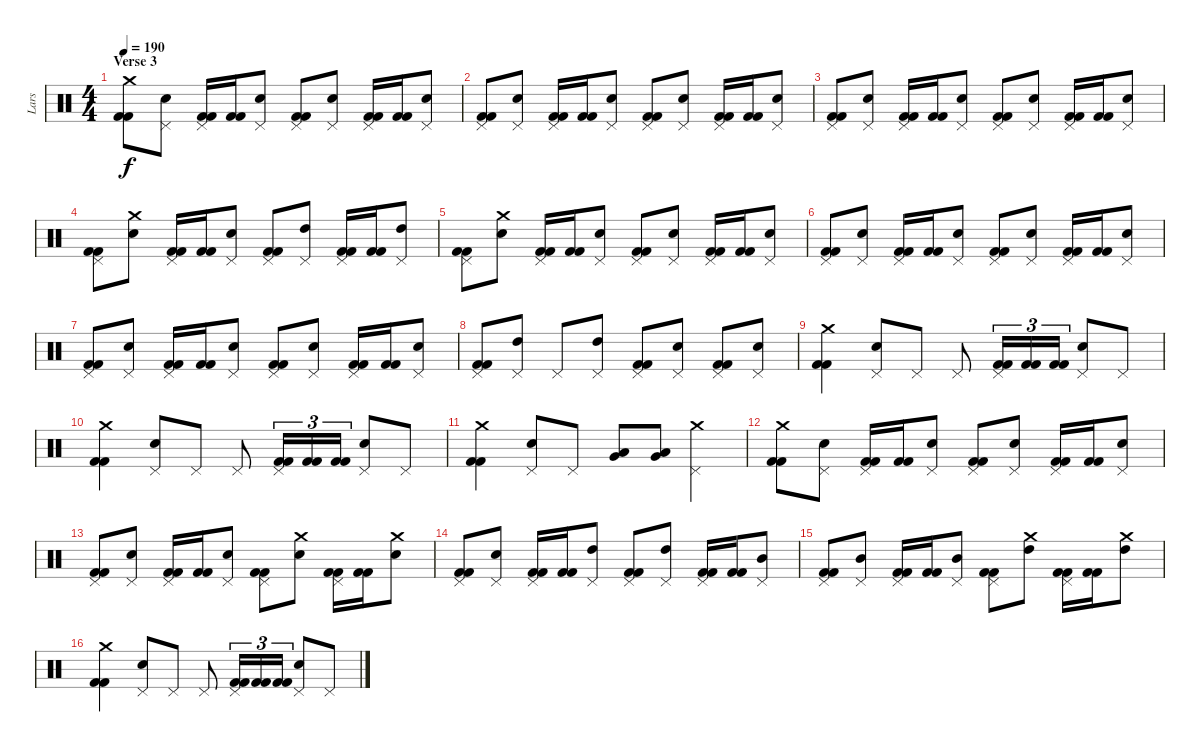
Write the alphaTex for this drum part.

\track ("Lars" "Lars") {instrument percussion}
\staff {score}
\articulation defaults
\ts (4 4)
\section ("" "Verse 3")
\tempo 190
\clef neutral
\ks c
("Crash medium (hit)" "Kick (hit) 2" "Kick (hit) 2").8{dy f} ("Pedal Hi-Hat (hit)" "Electric Snare (hit)").8 ("Pedal Hi-Hat (hit)" "Kick (hit) 2" "Kick (hit) 2").16 ("Kick (hit) 2" "Kick (hit) 2").16 ("Pedal Hi-Hat (hit)" "Electric Snare (hit)").8 ("Pedal Hi-Hat (hit)" "Kick (hit) 2" "Kick (hit) 2").8 ("Pedal Hi-Hat (hit)" "Electric Snare (hit)").8 ("Pedal Hi-Hat (hit)" "Kick (hit) 2" "Kick (hit) 2").16 ("Kick (hit) 2" "Kick (hit) 2").16 ("Pedal Hi-Hat (hit)" "Electric Snare (hit)").8 |
("Pedal Hi-Hat (hit)" "Kick (hit) 2" "Kick (hit) 2").8 ("Pedal Hi-Hat (hit)" "Electric Snare (hit)").8 ("Pedal Hi-Hat (hit)" "Kick (hit) 2" "Kick (hit) 2").16 ("Kick (hit) 2" "Kick (hit) 2").16 ("Pedal Hi-Hat (hit)" "Electric Snare (hit)").8 ("Pedal Hi-Hat (hit)" "Kick (hit) 2" "Kick (hit) 2").8 ("Pedal Hi-Hat (hit)" "Electric Snare (hit)").8 ("Pedal Hi-Hat (hit)" "Kick (hit) 2" "Kick (hit) 2").16 ("Kick (hit) 2" "Kick (hit) 2").16 ("Pedal Hi-Hat (hit)" "Electric Snare (hit)").8 |
("Pedal Hi-Hat (hit)" "Kick (hit) 2" "Kick (hit) 2").8 ("Pedal Hi-Hat (hit)" "Electric Snare (hit)").8 ("Pedal Hi-Hat (hit)" "Kick (hit) 2" "Kick (hit) 2").16 ("Kick (hit) 2" "Kick (hit) 2").16 ("Pedal Hi-Hat (hit)" "Electric Snare (hit)").8 ("Pedal Hi-Hat (hit)" "Kick (hit) 2" "Kick (hit) 2").8 ("Pedal Hi-Hat (hit)" "Electric Snare (hit)").8 ("Pedal Hi-Hat (hit)" "Kick (hit) 2" "Kick (hit) 2").16 ("Kick (hit) 2" "Kick (hit) 2").16 ("Pedal Hi-Hat (hit)" "Electric Snare (hit)").8 |
("Pedal Hi-Hat (hit)" "Kick (hit) 2" "Kick (hit) 2").8 ("Crash medium (hit)" "Electric Snare (hit)").8 ("Pedal Hi-Hat (hit)" "Kick (hit) 2" "Kick (hit) 2").16 ("Kick (hit) 2" "Kick (hit) 2").16 ("Pedal Hi-Hat (hit)" "Electric Snare (hit)").8 ("Pedal Hi-Hat (hit)" "Kick (hit) 2" "Kick (hit) 2").8 ("Pedal Hi-Hat (hit)" "High Tom (hit)").8 ("Pedal Hi-Hat (hit)" "Kick (hit) 2" "Kick (hit) 2").16 ("Kick (hit) 2" "Kick (hit) 2").16 ("Pedal Hi-Hat (hit)" "High Tom (hit)").8 |
("Pedal Hi-Hat (hit)" "Kick (hit) 2" "Kick (hit) 2").8 ("Crash medium (hit)" "Electric Snare (hit)").8 ("Pedal Hi-Hat (hit)" "Kick (hit) 2" "Kick (hit) 2").16 ("Kick (hit) 2" "Kick (hit) 2").16 ("Pedal Hi-Hat (hit)" "Electric Snare (hit)").8 ("Pedal Hi-Hat (hit)" "Kick (hit) 2" "Kick (hit) 2").8 ("Pedal Hi-Hat (hit)" "Electric Snare (hit)").8 ("Pedal Hi-Hat (hit)" "Kick (hit) 2" "Kick (hit) 2").16 ("Kick (hit) 2" "Kick (hit) 2").16 ("Pedal Hi-Hat (hit)" "Electric Snare (hit)").8 |
("Pedal Hi-Hat (hit)" "Kick (hit) 2" "Kick (hit) 2").8 ("Pedal Hi-Hat (hit)" "Electric Snare (hit)").8 ("Pedal Hi-Hat (hit)" "Kick (hit) 2" "Kick (hit) 2").16 ("Kick (hit) 2" "Kick (hit) 2").16 ("Pedal Hi-Hat (hit)" "Electric Snare (hit)").8 ("Pedal Hi-Hat (hit)" "Kick (hit) 2" "Kick (hit) 2").8 ("Pedal Hi-Hat (hit)" "Electric Snare (hit)").8 ("Pedal Hi-Hat (hit)" "Kick (hit) 2" "Kick (hit) 2").16 ("Kick (hit) 2" "Kick (hit) 2").16 ("Pedal Hi-Hat (hit)" "Electric Snare (hit)").8 |
("Pedal Hi-Hat (hit)" "Kick (hit) 2" "Kick (hit) 2").8 ("Pedal Hi-Hat (hit)" "Electric Snare (hit)").8 ("Pedal Hi-Hat (hit)" "Kick (hit) 2" "Kick (hit) 2").16 ("Kick (hit) 2" "Kick (hit) 2").16 ("Pedal Hi-Hat (hit)" "Electric Snare (hit)").8 ("Pedal Hi-Hat (hit)" "Kick (hit) 2" "Kick (hit) 2").8 ("Pedal Hi-Hat (hit)" "Electric Snare (hit)").8 ("Pedal Hi-Hat (hit)" "Kick (hit) 2" "Kick (hit) 2").16 ("Kick (hit) 2" "Kick (hit) 2").16 ("Pedal Hi-Hat (hit)" "Electric Snare (hit)").8 |
("Pedal Hi-Hat (hit)" "Kick (hit) 2" "Kick (hit) 2").8 ("Pedal Hi-Hat (hit)" "High Tom (hit)").8 "Pedal Hi-Hat (hit)".8 ("Pedal Hi-Hat (hit)" "High Tom (hit)").8 ("Pedal Hi-Hat (hit)" "Kick (hit) 2" "Kick (hit) 2").8 ("Pedal Hi-Hat (hit)" "Electric Snare (hit)").8 ("Pedal Hi-Hat (hit)" "Kick (hit) 2" "Kick (hit) 2").8 ("Pedal Hi-Hat (hit)" "Electric Snare (hit)").8 |
\section ("" "")
("Crash medium (hit)" "Kick (hit) 2" "Kick (hit) 2").4 ("Pedal Hi-Hat (hit)" "Electric Snare (hit)").8 "Pedal Hi-Hat (hit)".8 "Pedal Hi-Hat (hit)".8 ("Pedal Hi-Hat (hit)" "Kick (hit) 2" "Kick (hit) 2").16{tu (3 2)} ("Kick (hit) 2" "Kick (hit) 2").16{tu (3 2)} ("Kick (hit) 2" "Kick (hit) 2").16{tu (3 2)} ("Pedal Hi-Hat (hit)" "Electric Snare (hit)").8 "Pedal Hi-Hat (hit)".8 |
("Crash medium (hit)" "Kick (hit) 2" "Kick (hit) 2").4 ("Pedal Hi-Hat (hit)" "Electric Snare (hit)").8 "Pedal Hi-Hat (hit)".8 "Pedal Hi-Hat (hit)".8 ("Pedal Hi-Hat (hit)" "Kick (hit) 2" "Kick (hit) 2").16{tu (3 2)} ("Kick (hit) 2" "Kick (hit) 2").16{tu (3 2)} ("Kick (hit) 2" "Kick (hit) 2").16{tu (3 2)} ("Pedal Hi-Hat (hit)" "Electric Snare (hit)").8 "Pedal Hi-Hat (hit)".8 |
("Crash medium (hit)" "Kick (hit) 2" "Kick (hit) 2").4 ("Pedal Hi-Hat (hit)" "Electric Snare (hit)").8 "Pedal Hi-Hat (hit)".8 ("Low Tom (hit)" "Very Low Tom (hit)").8 ("Low Tom (hit)" "Very Low Tom (hit)").8 ("Pedal Hi-Hat (hit)" "Crash medium (hit)").4 |
("Crash medium (hit)" "Kick (hit) 2" "Kick (hit) 2").8 ("Pedal Hi-Hat (hit)" "Electric Snare (hit)").8 ("Pedal Hi-Hat (hit)" "Kick (hit) 2" "Kick (hit) 2").16 ("Kick (hit) 2" "Kick (hit) 2").16 ("Pedal Hi-Hat (hit)" "Electric Snare (hit)").8 ("Pedal Hi-Hat (hit)" "Kick (hit) 2" "Kick (hit) 2").8 ("Pedal Hi-Hat (hit)" "Electric Snare (hit)").8 ("Pedal Hi-Hat (hit)" "Kick (hit) 2" "Kick (hit) 2").16 ("Kick (hit) 2" "Kick (hit) 2").16 ("Pedal Hi-Hat (hit)" "Electric Snare (hit)").8 |
("Pedal Hi-Hat (hit)" "Kick (hit) 2" "Kick (hit) 2").8 ("Pedal Hi-Hat (hit)" "Electric Snare (hit)").8 ("Pedal Hi-Hat (hit)" "Kick (hit) 2" "Kick (hit) 2").16 ("Kick (hit) 2" "Kick (hit) 2").16 ("Pedal Hi-Hat (hit)" "Electric Snare (hit)").8 ("Pedal Hi-Hat (hit)" "Kick (hit) 2" "Kick (hit) 2").8 ("Crash medium (hit)" "Electric Snare (hit)").8 ("Pedal Hi-Hat (hit)" "Kick (hit) 2" "Kick (hit) 2").16 ("Kick (hit) 2" "Kick (hit) 2").16 ("Crash medium (hit)" "Electric Snare (hit)").8 |
("Pedal Hi-Hat (hit)" "Kick (hit) 2" "Kick (hit) 2").8 ("Pedal Hi-Hat (hit)" "Electric Snare (hit)").8 ("Pedal Hi-Hat (hit)" "Kick (hit) 2" "Kick (hit) 2").16 ("Kick (hit) 2" "Kick (hit) 2").16 ("Pedal Hi-Hat (hit)" "High Tom (hit)").8 ("Pedal Hi-Hat (hit)" "Kick (hit) 2" "Kick (hit) 2").8 ("Pedal Hi-Hat (hit)" "High Tom (hit)").8 ("Pedal Hi-Hat (hit)" "Kick (hit) 2" "Kick (hit) 2").16 ("Kick (hit) 2" "Kick (hit) 2").16 ("Pedal Hi-Hat (hit)" "Mid Tom (hit)").8 |
("Pedal Hi-Hat (hit)" "Kick (hit) 2" "Kick (hit) 2").8 ("Pedal Hi-Hat (hit)" "Mid Tom (hit)").8 ("Pedal Hi-Hat (hit)" "Kick (hit) 2" "Kick (hit) 2").16 ("Kick (hit) 2" "Kick (hit) 2").16 ("Pedal Hi-Hat (hit)" "Mid Tom (hit)").8 ("Pedal Hi-Hat (hit)" "Kick (hit) 2" "Kick (hit) 2").8 ("Crash medium (hit)" "High Tom (hit)").8 ("Pedal Hi-Hat (hit)" "Kick (hit) 2" "Kick (hit) 2").16 ("Kick (hit) 2" "Kick (hit) 2").16 ("Crash medium (hit)" "High Tom (hit)").8 |
\section ("" "")
("Crash medium (hit)" "Kick (hit) 2" "Kick (hit) 2").4 ("Pedal Hi-Hat (hit)" "Electric Snare (hit)").8 "Pedal Hi-Hat (hit)".8 "Pedal Hi-Hat (hit)".8 ("Pedal Hi-Hat (hit)" "Kick (hit) 2" "Kick (hit) 2").16{tu (3 2)} ("Kick (hit) 2" "Kick (hit) 2").16{tu (3 2)} ("Kick (hit) 2" "Kick (hit) 2").16{tu (3 2)} ("Pedal Hi-Hat (hit)" "Electric Snare (hit)").8 "Pedal Hi-Hat (hit)".8
